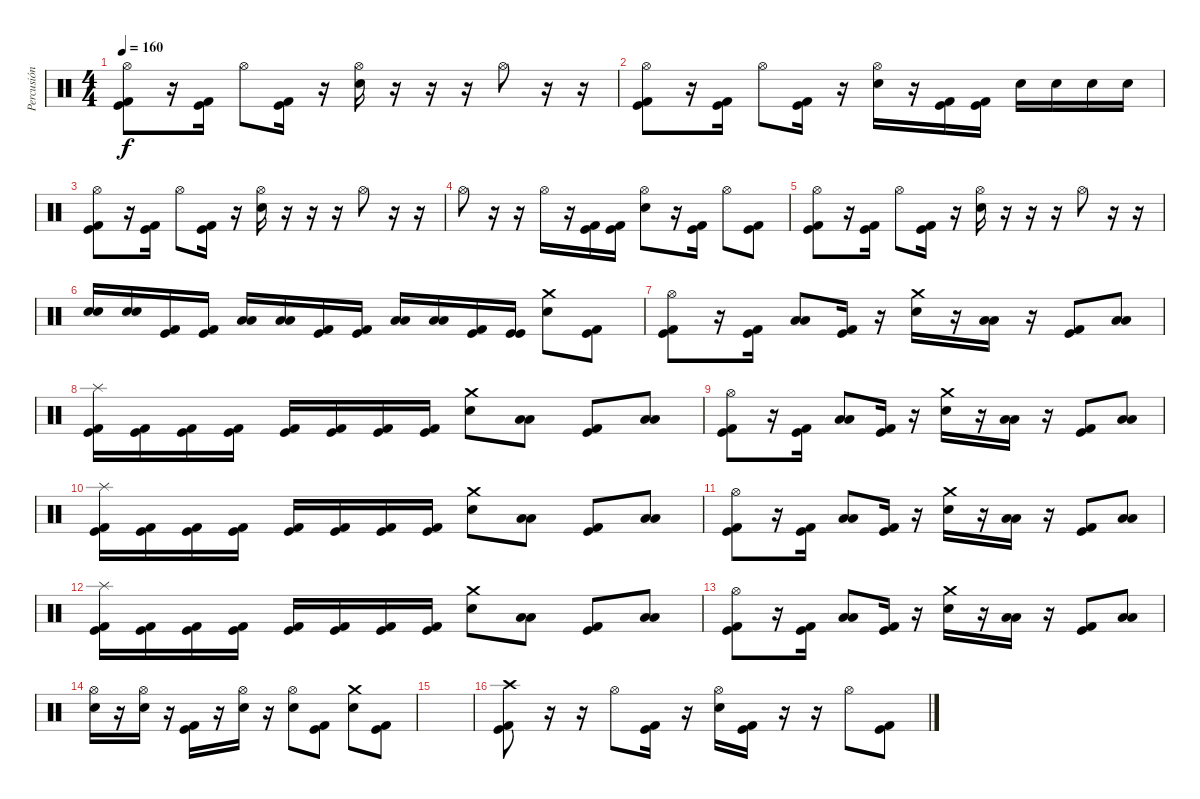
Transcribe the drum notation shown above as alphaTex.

\track ("Percusión" "Percusión") {instrument percussion}
\staff {score}
\articulation defaults
\ts (4 4)
\tempo 160
\clef neutral
\ks c
("Hi-Hat (open)" "Kick (hit)" "Kick (hit) 2").8{dy f} r.16 ("Kick (hit)" "Kick (hit) 2").16 "Hi-Hat (open)".8 ("Kick (hit)" "Kick (hit) 2").16 r.16 ("Hi-Hat (open)" "Electric Snare (hit)").16 r.16 r.16 r.16 "Hi-Hat (open)".8 r.16 r.16 |
("Hi-Hat (open)" "Kick (hit)" "Kick (hit) 2").8 r.16 ("Kick (hit)" "Kick (hit) 2").16 "Hi-Hat (open)".8 ("Kick (hit)" "Kick (hit) 2").16 r.16 ("Hi-Hat (open)" "Electric Snare (hit)").16 r.16 ("Kick (hit) 2" "Kick (hit)").16 ("Kick (hit)" "Kick (hit) 2").16 "Electric Snare (hit)".16 "Electric Snare (hit)".16 "Electric Snare (hit)".16 "Electric Snare (hit)".16 |
("Hi-Hat (open)" "Kick (hit)" "Kick (hit) 2").8 r.16 ("Kick (hit)" "Kick (hit) 2").16 "Hi-Hat (open)".8 ("Kick (hit)" "Kick (hit) 2").16 r.16 ("Hi-Hat (open)" "Electric Snare (hit)").16 r.16 r.16 r.16 "Hi-Hat (open)".8 r.16 r.16 |
"Hi-Hat (open)".8 r.16 r.16 "Hi-Hat (open)".16 r.16 ("Kick (hit) 2" "Kick (hit)").16 ("Kick (hit) 2" "Kick (hit)").16 ("Hi-Hat (open)" "Electric Snare (hit)").8 r.16 ("Kick (hit)" "Kick (hit) 2").16 "Hi-Hat (open)".8 ("Kick (hit) 2" "Kick (hit)").8 |
("Hi-Hat (open)" "Kick (hit)" "Kick (hit) 2").8 r.16 ("Kick (hit)" "Kick (hit) 2").16 "Hi-Hat (open)".8 ("Kick (hit)" "Kick (hit) 2").16 r.16 ("Hi-Hat (open)" "Electric Snare (hit)").16 r.16 r.16 r.16 "Hi-Hat (open)".8 r.16 r.16 |
("Electric Snare (hit)" "Electric Snare (hit)").16 ("Electric Snare (hit)" "Electric Snare (hit)").16 ("Kick (hit) 2" "Kick (hit)").16 ("Kick (hit)" "Kick (hit) 2").16 ("Low Tom (hit)" "Low Tom (hit)").16 ("Low Tom (hit)" "Low Tom (hit)").16 ("Kick (hit)" "Kick (hit) 2").16 ("Kick (hit)" "Kick (hit) 2").16 ("Low Floor Tom (hit)" "Low Floor Tom (hit)").16 ("Low Floor Tom (hit)" "Low Floor Tom (hit)").16 ("Kick (hit)" "Kick (hit) 2").16 ("Kick (hit)" "Kick (hit)").16 ("Crash medium (hit)" "Electric Snare (hit)").8 ("Kick (hit)" "Kick (hit) 2").8 |
("Hi-Hat (open)" "Kick (hit)" "Kick (hit) 2").8 r.16 ("Kick (hit)" "Kick (hit) 2").16 ("Low Tom (hit)" "Low Tom (hit)").8 ("Kick (hit)" "Kick (hit) 2").16 r.16 ("Crash medium (hit)" "Electric Snare (hit)").16 r.16 ("Low Tom (hit)" "Low Tom (hit)").16 r.16 ("Kick (hit) 2" "Kick (hit)").8 ("Low Floor Tom (hit)" "Low Floor Tom (hit)").8 |
("Splash (hit)" "Kick (hit)" "Kick (hit) 2").16 ("Kick (hit)" "Kick (hit) 2").16 ("Kick (hit)" "Kick (hit) 2").16 ("Kick (hit)" "Kick (hit) 2").16 ("Kick (hit)" "Kick (hit) 2").16 ("Kick (hit)" "Kick (hit) 2").16 ("Kick (hit) 2" "Kick (hit)").16 ("Kick (hit) 2" "Kick (hit)").16 ("Crash medium (hit)" "Electric Snare (hit)").8 ("Low Tom (hit)" "Low Tom (hit)").8 ("Kick (hit)" "Kick (hit) 2").8 ("Low Floor Tom (hit)" "Low Floor Tom (hit)").8 |
("Hi-Hat (open)" "Kick (hit)" "Kick (hit) 2").8 r.16 ("Kick (hit)" "Kick (hit) 2").16 ("Low Tom (hit)" "Low Tom (hit)").8 ("Kick (hit)" "Kick (hit) 2").16 r.16 ("Crash medium (hit)" "Electric Snare (hit)").16 r.16 ("Low Tom (hit)" "Low Tom (hit)").16 r.16 ("Kick (hit) 2" "Kick (hit)").8 ("Low Floor Tom (hit)" "Low Floor Tom (hit)").8 |
("Splash (hit)" "Kick (hit)" "Kick (hit) 2").16 ("Kick (hit)" "Kick (hit) 2").16 ("Kick (hit)" "Kick (hit) 2").16 ("Kick (hit)" "Kick (hit) 2").16 ("Kick (hit)" "Kick (hit) 2").16 ("Kick (hit)" "Kick (hit) 2").16 ("Kick (hit) 2" "Kick (hit)").16 ("Kick (hit) 2" "Kick (hit)").16 ("Crash medium (hit)" "Electric Snare (hit)").8 ("Low Tom (hit)" "Low Tom (hit)").8 ("Kick (hit)" "Kick (hit) 2").8 ("Low Floor Tom (hit)" "Low Floor Tom (hit)").8 |
("Hi-Hat (open)" "Kick (hit)" "Kick (hit) 2").8 r.16 ("Kick (hit)" "Kick (hit) 2").16 ("Low Tom (hit)" "Low Tom (hit)").8 ("Kick (hit)" "Kick (hit) 2").16 r.16 ("Crash medium (hit)" "Electric Snare (hit)").16 r.16 ("Low Tom (hit)" "Low Tom (hit)").16 r.16 ("Kick (hit) 2" "Kick (hit)").8 ("Low Floor Tom (hit)" "Low Floor Tom (hit)").8 |
("Splash (hit)" "Kick (hit)" "Kick (hit) 2").16 ("Kick (hit)" "Kick (hit) 2").16 ("Kick (hit)" "Kick (hit) 2").16 ("Kick (hit)" "Kick (hit) 2").16 ("Kick (hit)" "Kick (hit) 2").16 ("Kick (hit)" "Kick (hit) 2").16 ("Kick (hit) 2" "Kick (hit)").16 ("Kick (hit) 2" "Kick (hit)").16 ("Crash medium (hit)" "Electric Snare (hit)").8 ("Low Tom (hit)" "Low Tom (hit)").8 ("Kick (hit)" "Kick (hit) 2").8 ("Low Floor Tom (hit)" "Low Floor Tom (hit)").8 |
("Hi-Hat (open)" "Kick (hit)" "Kick (hit) 2").8 r.16 ("Kick (hit)" "Kick (hit) 2").16 ("Low Tom (hit)" "Low Tom (hit)").8 ("Kick (hit)" "Kick (hit) 2").16 r.16 ("Crash medium (hit)" "Electric Snare (hit)").16 r.16 ("Low Tom (hit)" "Low Tom (hit)").16 r.16 ("Kick (hit) 2" "Kick (hit)").8 ("Low Floor Tom (hit)" "Low Floor Tom (hit)").8 |
("Hi-Hat (open)" "Electric Snare (hit)").16 r.16 ("Hi-Hat (open)" "Electric Snare (hit)").16 r.16 ("Kick (hit)" "Kick (hit) 2").16 r.16 ("Hi-Hat (open)" "Electric Snare (hit)").16 r.16 ("Hi-Hat (open)" "Electric Snare (hit)").8 ("Kick (hit) 2" "Kick (hit)").8 ("Crash medium (hit)" "Electric Snare (hit)").8 ("Kick (hit)" "Kick (hit) 2").8 |
|
("Crash high (hit)" "Kick (hit)" "Kick (hit) 2").8 r.16 r.16 "Hi-Hat (open)".8 ("Kick (hit)" "Kick (hit) 2").16 r.16 ("Hi-Hat (open)" "Electric Snare (hit)").16 ("Kick (hit)" "Kick (hit) 2").16 r.16 r.16 "Hi-Hat (open)".8 ("Kick (hit) 2" "Kick (hit)").8
